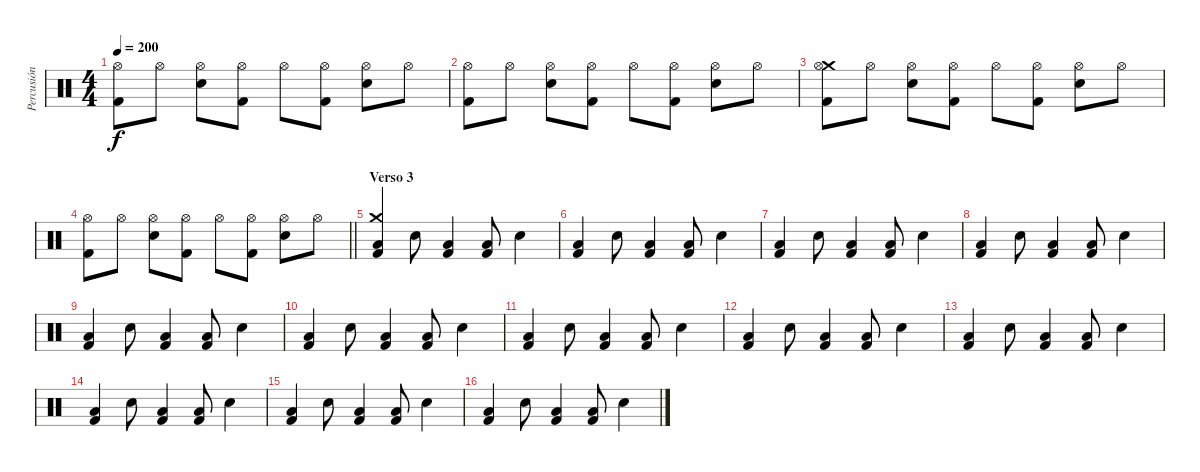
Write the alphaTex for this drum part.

\track ("Percusión" "Percusión") {instrument percussion}
\staff {score}
\articulation defaults
\ts (4 4)
\tempo 200
\clef neutral
\ks c
("Hi-Hat (open)" "Kick (hit) 2").8{dy f} "Hi-Hat (open)".8 ("Hi-Hat (open)" "Snare (hit) 2").8 ("Hi-Hat (open)" "Kick (hit) 2").8 "Hi-Hat (open)".8 ("Hi-Hat (open)" "Kick (hit) 2").8 ("Hi-Hat (open)" "Snare (hit) 2").8 "Hi-Hat (open)".8 |
("Hi-Hat (open)" "Kick (hit) 2").8 "Hi-Hat (open)".8 ("Hi-Hat (open)" "Snare (hit) 2").8 ("Hi-Hat (open)" "Kick (hit) 2").8 "Hi-Hat (open)".8 ("Hi-Hat (open)" "Kick (hit) 2").8 ("Hi-Hat (open)" "Snare (hit) 2").8 "Hi-Hat (open)".8 |
("Crash medium (hit)" "Hi-Hat (open)" "Kick (hit) 2").8 "Hi-Hat (open)".8 ("Hi-Hat (open)" "Snare (hit) 2").8 ("Hi-Hat (open)" "Kick (hit) 2").8 "Hi-Hat (open)".8 ("Hi-Hat (open)" "Kick (hit) 2").8 ("Hi-Hat (open)" "Snare (hit) 2").8 "Hi-Hat (open)".8 |
\barLineRight lightlight
("Hi-Hat (open)" "Kick (hit) 2").8 "Hi-Hat (open)".8 ("Hi-Hat (open)" "Snare (hit) 2").8 ("Hi-Hat (open)" "Kick (hit) 2").8 "Hi-Hat (open)".8 ("Hi-Hat (open)" "Kick (hit) 2").8 ("Hi-Hat (open)" "Snare (hit) 2").8 "Hi-Hat (open)".8 |
\section ("" "Verso 3")
("Crash medium (hit)" "Low Floor Tom (hit)" "Kick (hit) 2").4 "Snare (hit) 2".8 ("Low Floor Tom (hit)" "Kick (hit) 2").4 ("Low Floor Tom (hit)" "Kick (hit) 2").8 "Snare (hit) 2".4 |
("Low Floor Tom (hit)" "Kick (hit) 2").4 "Snare (hit) 2".8 ("Low Floor Tom (hit)" "Kick (hit) 2").4 ("Low Floor Tom (hit)" "Kick (hit) 2").8 "Snare (hit) 2".4 |
("Low Floor Tom (hit)" "Kick (hit) 2").4 "Snare (hit) 2".8 ("Low Floor Tom (hit)" "Kick (hit) 2").4 ("Low Floor Tom (hit)" "Kick (hit) 2").8 "Snare (hit) 2".4 |
("Low Floor Tom (hit)" "Kick (hit) 2").4 "Snare (hit) 2".8 ("Low Floor Tom (hit)" "Kick (hit) 2").4 ("Low Floor Tom (hit)" "Kick (hit) 2").8 "Snare (hit) 2".4 |
("Low Floor Tom (hit)" "Kick (hit) 2").4 "Snare (hit) 2".8 ("Low Floor Tom (hit)" "Kick (hit) 2").4 ("Low Floor Tom (hit)" "Kick (hit) 2").8 "Snare (hit) 2".4 |
("Low Floor Tom (hit)" "Kick (hit) 2").4 "Snare (hit) 2".8 ("Low Floor Tom (hit)" "Kick (hit) 2").4 ("Low Floor Tom (hit)" "Kick (hit) 2").8 "Snare (hit) 2".4 |
("Low Floor Tom (hit)" "Kick (hit) 2").4 "Snare (hit) 2".8 ("Low Floor Tom (hit)" "Kick (hit) 2").4 ("Low Floor Tom (hit)" "Kick (hit) 2").8 "Snare (hit) 2".4 |
("Low Floor Tom (hit)" "Kick (hit) 2").4 "Snare (hit) 2".8 ("Low Floor Tom (hit)" "Kick (hit) 2").4 ("Low Floor Tom (hit)" "Kick (hit) 2").8 "Snare (hit) 2".4 |
("Low Floor Tom (hit)" "Kick (hit) 2").4 "Snare (hit) 2".8 ("Low Floor Tom (hit)" "Kick (hit) 2").4 ("Low Floor Tom (hit)" "Kick (hit) 2").8 "Snare (hit) 2".4 |
("Low Floor Tom (hit)" "Kick (hit) 2").4 "Snare (hit) 2".8 ("Low Floor Tom (hit)" "Kick (hit) 2").4 ("Low Floor Tom (hit)" "Kick (hit) 2").8 "Snare (hit) 2".4 |
("Low Floor Tom (hit)" "Kick (hit) 2").4 "Snare (hit) 2".8 ("Low Floor Tom (hit)" "Kick (hit) 2").4 ("Low Floor Tom (hit)" "Kick (hit) 2").8 "Snare (hit) 2".4 |
("Low Floor Tom (hit)" "Kick (hit) 2").4 "Snare (hit) 2".8 ("Low Floor Tom (hit)" "Kick (hit) 2").4 ("Low Floor Tom (hit)" "Kick (hit) 2").8 "Snare (hit) 2".4
